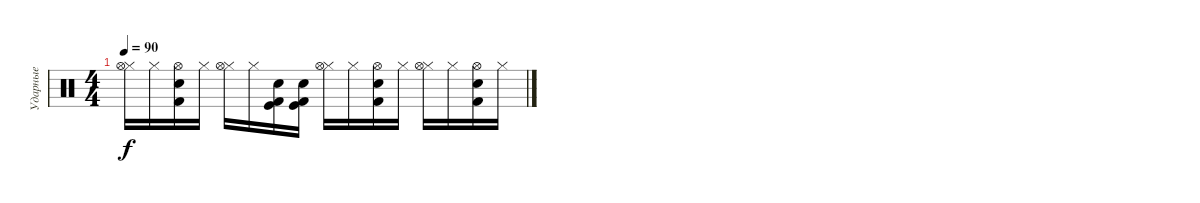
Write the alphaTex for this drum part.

\track ("Ударные" "Ударные") {instrument percussion}
\staff {score}
\articulation defaults
\ts (4 4)
\tempo 90
\clef neutral
\ks c
("Hi-Hat (closed)" "Hi-Hat (open)").16{dy f} "Hi-Hat (closed)".16 ("Snare (hit) 2" "Hi-Hat (open)" "Kick (hit) 2").16 "Hi-Hat (closed)".16 ("Hi-Hat (closed)" "Hi-Hat (open)").16 "Hi-Hat (closed)".16 ("Snare (hit) 2" "Kick (hit)" "Kick (hit) 2").16 ("Snare (hit) 2" "Kick (hit)" "Kick (hit) 2").16 ("Hi-Hat (closed)" "Hi-Hat (open)").16 "Hi-Hat (closed)".16 ("Snare (hit) 2" "Kick (hit) 2" "Hi-Hat (open)").16 "Hi-Hat (closed)".16 ("Hi-Hat (closed)" "Hi-Hat (open)").16 "Hi-Hat (closed)".16 ("Snare (hit) 2" "Kick (hit) 2" "Hi-Hat (open)").16 "Hi-Hat (closed)".16
